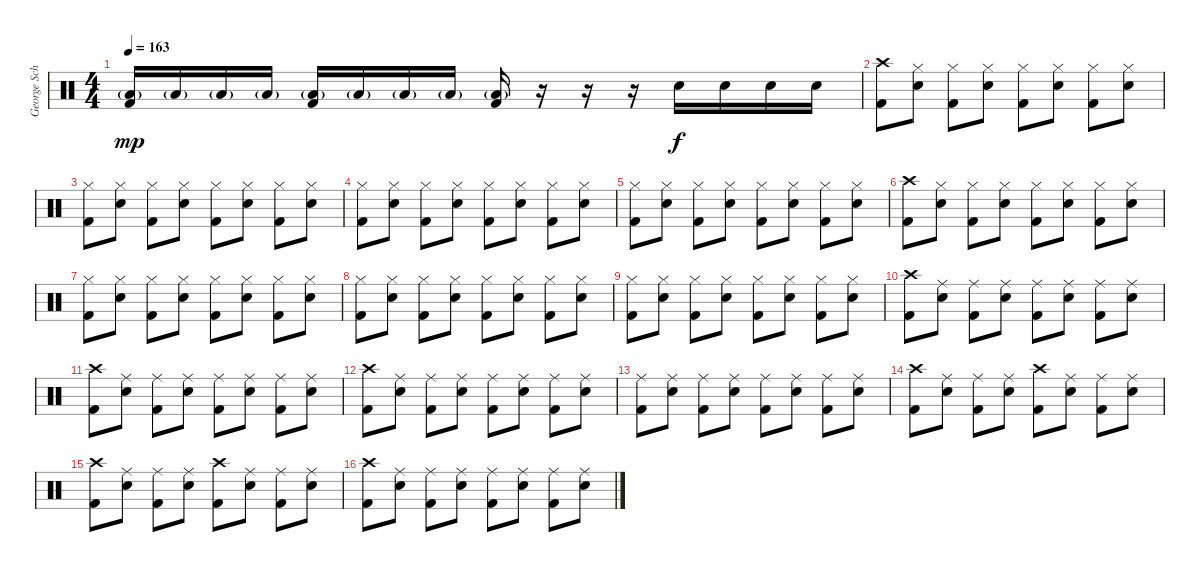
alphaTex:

\track ("George Schwindt" "George Sch") {instrument percussion}
\staff {score}
\articulation defaults
\ts (4 4)
\tempo 163
\clef neutral
\ks c
("Low Floor Tom (hit)"{g} "Kick (hit) 2").16{dy mp} "Low Floor Tom (hit)"{g}.16 "Low Floor Tom (hit)"{g}.16 "Low Floor Tom (hit)"{g}.16 ("Low Floor Tom (hit)"{g} "Kick (hit) 2").16 "Low Floor Tom (hit)"{g}.16 "Low Floor Tom (hit)"{g}.16 "Low Floor Tom (hit)"{g}.16 ("Low Floor Tom (hit)"{g} "Kick (hit) 2").16 r.16 r.16 r.16 "Snare (hit) 2".16{dy f} "Snare (hit) 2".16 "Snare (hit) 2".16 "Snare (hit) 2".16 |
("Crash high (hit)" "Kick (hit) 2").8 ("Hi-Hat (closed)" "Snare (hit) 2").8 ("Hi-Hat (closed)" "Kick (hit) 2").8 ("Hi-Hat (closed)" "Snare (hit) 2").8 ("Hi-Hat (closed)" "Kick (hit) 2").8 ("Hi-Hat (closed)" "Snare (hit) 2").8 ("Hi-Hat (closed)" "Kick (hit) 2").8 ("Hi-Hat (closed)" "Snare (hit) 2").8 |
("Hi-Hat (closed)" "Kick (hit) 2").8 ("Hi-Hat (closed)" "Snare (hit) 2").8 ("Hi-Hat (closed)" "Kick (hit) 2").8 ("Hi-Hat (closed)" "Snare (hit) 2").8 ("Hi-Hat (closed)" "Kick (hit) 2").8 ("Hi-Hat (closed)" "Snare (hit) 2").8 ("Hi-Hat (closed)" "Kick (hit) 2").8 ("Hi-Hat (closed)" "Snare (hit) 2").8 |
("Hi-Hat (closed)" "Kick (hit) 2").8 ("Hi-Hat (closed)" "Snare (hit) 2").8 ("Hi-Hat (closed)" "Kick (hit) 2").8 ("Hi-Hat (closed)" "Snare (hit) 2").8 ("Hi-Hat (closed)" "Kick (hit) 2").8 ("Hi-Hat (closed)" "Snare (hit) 2").8 ("Hi-Hat (closed)" "Kick (hit) 2").8 ("Hi-Hat (closed)" "Snare (hit) 2").8 |
("Hi-Hat (closed)" "Kick (hit) 2").8 ("Hi-Hat (closed)" "Snare (hit) 2").8 ("Hi-Hat (closed)" "Kick (hit) 2").8 ("Hi-Hat (closed)" "Snare (hit) 2").8 ("Hi-Hat (closed)" "Kick (hit) 2").8 ("Hi-Hat (closed)" "Snare (hit) 2").8 ("Hi-Hat (closed)" "Kick (hit) 2").8 ("Hi-Hat (closed)" "Snare (hit) 2").8 |
("Crash high (hit)" "Kick (hit) 2").8 ("Hi-Hat (closed)" "Snare (hit) 2").8 ("Hi-Hat (closed)" "Kick (hit) 2").8 ("Hi-Hat (closed)" "Snare (hit) 2").8 ("Hi-Hat (closed)" "Kick (hit) 2").8 ("Hi-Hat (closed)" "Snare (hit) 2").8 ("Hi-Hat (closed)" "Kick (hit) 2").8 ("Hi-Hat (closed)" "Snare (hit) 2").8 |
("Hi-Hat (closed)" "Kick (hit) 2").8 ("Hi-Hat (closed)" "Snare (hit) 2").8 ("Hi-Hat (closed)" "Kick (hit) 2").8 ("Hi-Hat (closed)" "Snare (hit) 2").8 ("Hi-Hat (closed)" "Kick (hit) 2").8 ("Hi-Hat (closed)" "Snare (hit) 2").8 ("Hi-Hat (closed)" "Kick (hit) 2").8 ("Hi-Hat (closed)" "Snare (hit) 2").8 |
("Hi-Hat (closed)" "Kick (hit) 2").8 ("Hi-Hat (closed)" "Snare (hit) 2").8 ("Hi-Hat (closed)" "Kick (hit) 2").8 ("Hi-Hat (closed)" "Snare (hit) 2").8 ("Hi-Hat (closed)" "Kick (hit) 2").8 ("Hi-Hat (closed)" "Snare (hit) 2").8 ("Hi-Hat (closed)" "Kick (hit) 2").8 ("Hi-Hat (closed)" "Snare (hit) 2").8 |
("Hi-Hat (closed)" "Kick (hit) 2").8 ("Hi-Hat (closed)" "Snare (hit) 2").8 ("Hi-Hat (closed)" "Kick (hit) 2").8 ("Hi-Hat (closed)" "Snare (hit) 2").8 ("Hi-Hat (closed)" "Kick (hit) 2").8 ("Hi-Hat (closed)" "Snare (hit) 2").8 ("Hi-Hat (closed)" "Kick (hit) 2").8 ("Hi-Hat (closed)" "Snare (hit) 2").8 |
("Crash high (hit)" "Kick (hit) 2").8 ("Ride (middle)" "Snare (hit) 2").8 ("Ride (middle)" "Kick (hit) 2").8 ("Ride (middle)" "Snare (hit) 2").8 ("Ride (middle)" "Kick (hit) 2").8 ("Ride (middle)" "Snare (hit) 2").8 ("Ride (middle)" "Kick (hit) 2").8 ("Ride (middle)" "Snare (hit) 2").8 |
("Crash high (hit)" "Kick (hit) 2").8 ("Ride (middle)" "Snare (hit) 2").8 ("Ride (middle)" "Kick (hit) 2").8 ("Ride (middle)" "Snare (hit) 2").8 ("Ride (middle)" "Kick (hit) 2").8 ("Ride (middle)" "Snare (hit) 2").8 ("Ride (middle)" "Kick (hit) 2").8 ("Ride (middle)" "Snare (hit) 2").8 |
("Crash high (hit)" "Kick (hit) 2").8 ("Ride (middle)" "Snare (hit) 2").8 ("Ride (middle)" "Kick (hit) 2").8 ("Ride (middle)" "Snare (hit) 2").8 ("Ride (middle)" "Kick (hit) 2").8 ("Ride (middle)" "Snare (hit) 2").8 ("Ride (middle)" "Kick (hit) 2").8 ("Ride (middle)" "Snare (hit) 2").8 |
("Ride (middle)" "Kick (hit) 2").8 ("Ride (middle)" "Snare (hit) 2").8 ("Ride (middle)" "Kick (hit) 2").8 ("Ride (middle)" "Snare (hit) 2").8 ("Ride (middle)" "Kick (hit) 2").8 ("Ride (middle)" "Snare (hit) 2").8 ("Ride (middle)" "Kick (hit) 2").8 ("Ride (middle)" "Snare (hit) 2").8 |
("Crash high (hit)" "Kick (hit) 2").8 ("Ride (middle)" "Snare (hit) 2").8 ("Ride (middle)" "Kick (hit) 2").8 ("Ride (middle)" "Snare (hit) 2").8 ("Crash high (hit)" "Kick (hit) 2").8 ("Ride (middle)" "Snare (hit) 2").8 ("Ride (middle)" "Kick (hit) 2").8 ("Ride (middle)" "Snare (hit) 2").8 |
("Crash high (hit)" "Kick (hit) 2").8 ("Ride (middle)" "Snare (hit) 2").8 ("Ride (middle)" "Kick (hit) 2").8 ("Ride (middle)" "Snare (hit) 2").8 ("Crash high (hit)" "Kick (hit) 2").8 ("Ride (middle)" "Snare (hit) 2").8 ("Ride (middle)" "Kick (hit) 2").8 ("Ride (middle)" "Snare (hit) 2").8 |
("Crash high (hit)" "Kick (hit) 2").8 ("Ride (middle)" "Snare (hit) 2").8 ("Ride (middle)" "Kick (hit) 2").8 ("Ride (middle)" "Snare (hit) 2").8 ("Ride (middle)" "Kick (hit) 2").8 ("Ride (middle)" "Snare (hit) 2").8 ("Ride (middle)" "Kick (hit) 2").8 ("Ride (middle)" "Snare (hit) 2").8
